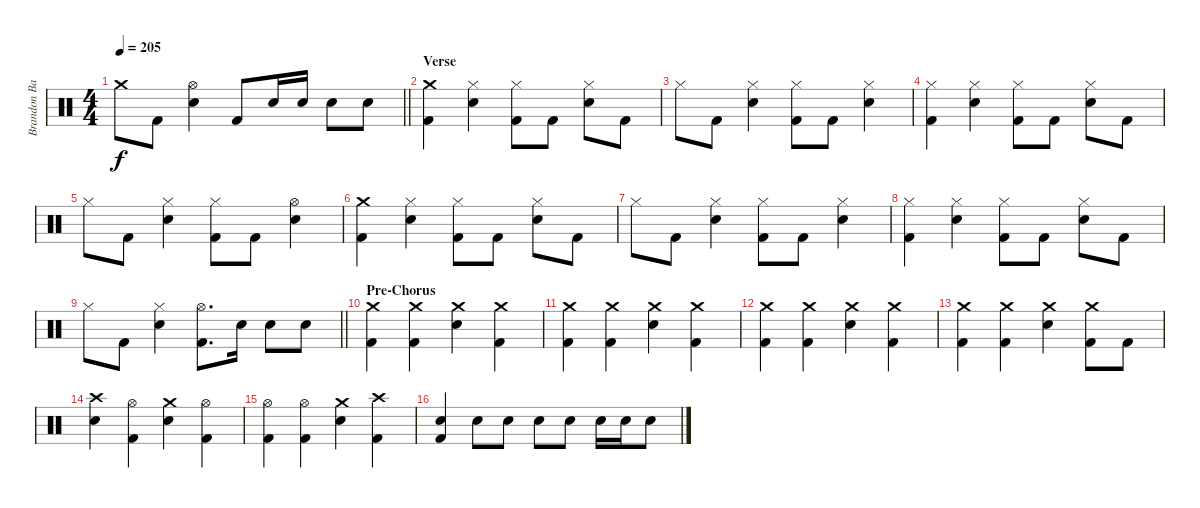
\track ("Brandon Barnes - Drums" "Brandon Ba") {instrument percussion}
\staff {score}
\articulation defaults
\ts (4 4)
\tempo 205
\clef neutral
\barLineRight lightlight
\ks c "Crash medium (hit)".8{dy f} "Kick (hit) 2".8
("Hi-Hat (open)" "Electric Snare (hit)").4 "Kick (hit) 2".8 "Electric Snare (hit)".16 "Electric Snare (hit)".16 "Electric Snare (hit)".8 "Electric Snare (hit)".8 |
\section ("" "Verse")
("Crash medium (hit)" "Kick (hit) 2").4 ("Hi-Hat (closed)" "Electric Snare (hit)").4 ("Hi-Hat (closed)" "Kick (hit) 2").8 "Kick (hit) 2".8 ("Hi-Hat (closed)" "Electric Snare (hit)").8 "Kick (hit) 2".8 |
"Hi-Hat (closed)".8 "Kick (hit) 2".8 ("Hi-Hat (closed)" "Electric Snare (hit)").4 ("Hi-Hat (closed)" "Kick (hit) 2").8 "Kick (hit) 2".8 ("Hi-Hat (closed)" "Electric Snare (hit)").4 |
("Hi-Hat (closed)" "Kick (hit) 2").4 ("Hi-Hat (closed)" "Electric Snare (hit)").4 ("Hi-Hat (closed)" "Kick (hit) 2").8 "Kick (hit) 2".8 ("Hi-Hat (closed)" "Electric Snare (hit)").8 "Kick (hit) 2".8 |
"Hi-Hat (closed)".8 "Kick (hit) 2".8 ("Hi-Hat (closed)" "Electric Snare (hit)").4 ("Hi-Hat (closed)" "Kick (hit) 2").8 "Kick (hit) 2".8 ("Hi-Hat (open)" "Electric Snare (hit)").4 |
("Crash medium (hit)" "Kick (hit) 2").4 ("Hi-Hat (closed)" "Electric Snare (hit)").4 ("Hi-Hat (closed)" "Kick (hit) 2").8 "Kick (hit) 2".8 ("Hi-Hat (closed)" "Electric Snare (hit)").8 "Kick (hit) 2".8 |
"Hi-Hat (closed)".8 "Kick (hit) 2".8 ("Hi-Hat (closed)" "Electric Snare (hit)").4 ("Hi-Hat (closed)" "Kick (hit) 2").8 "Kick (hit) 2".8 ("Hi-Hat (closed)" "Electric Snare (hit)").4 |
("Hi-Hat (closed)" "Kick (hit) 2").4 ("Hi-Hat (closed)" "Electric Snare (hit)").4 ("Hi-Hat (closed)" "Kick (hit) 2").8 "Kick (hit) 2".8 ("Hi-Hat (closed)" "Electric Snare (hit)").8 "Kick (hit) 2".8 |
\barLineRight lightlight "Hi-Hat (closed)".8 "Kick (hit) 2".8
("Hi-Hat (closed)" "Electric Snare (hit)").4 ("Hi-Hat (open)" "Kick (hit) 2").8{d} "Electric Snare (hit)".16 "Electric Snare (hit)".8 "Electric Snare (hit)".8 |
\section ("" "Pre-Chorus")
("Crash medium (hit)" "Kick (hit) 2").4 ("Crash medium (hit)" "Kick (hit) 2").4 ("Crash medium (hit)" "Electric Snare (hit)").4 ("Crash medium (hit)" "Kick (hit) 2").4 |
("Crash medium (hit)" "Kick (hit) 2").4 ("Crash medium (hit)" "Kick (hit) 2").4 ("Crash medium (hit)" "Electric Snare (hit)").4 ("Crash medium (hit)" "Kick (hit) 2").4 |
("Crash medium (hit)" "Kick (hit) 2").4 ("Crash medium (hit)" "Kick (hit) 2").4 ("Crash medium (hit)" "Electric Snare (hit)").4 ("Crash medium (hit)" "Kick (hit) 2").4 |
("Crash medium (hit)" "Kick (hit) 2").4 ("Crash medium (hit)" "Kick (hit) 2").4 ("Crash medium (hit)" "Electric Snare (hit)").4 ("Crash medium (hit)" "Kick (hit) 2").8 "Kick (hit) 2".8 |
("Crash high (hit)" "Electric Snare (hit)").4 ("Hi-Hat (open)" "Kick (hit) 2").4 ("Crash medium (hit)" "Electric Snare (hit)").4 ("Hi-Hat (open)" "Kick (hit) 2").4 |
("Hi-Hat (open)" "Kick (hit) 2").4 ("Hi-Hat (open)" "Kick (hit) 2").4 ("Crash medium (hit)" "Electric Snare (hit)").4 ("Crash high (hit)" "Kick (hit) 2").4 |
("Electric Snare (hit)" "Kick (hit) 2").4 "Electric Snare (hit)".8{volume 8} "Electric Snare (hit)".8{volume 9} "Electric Snare (hit)".8 "Electric Snare (hit)".8{volume 10} "Electric Snare (hit)".16{volume 8} "Electric Snare (hit)".16 "Electric Snare (hit)".8{volume 9}
